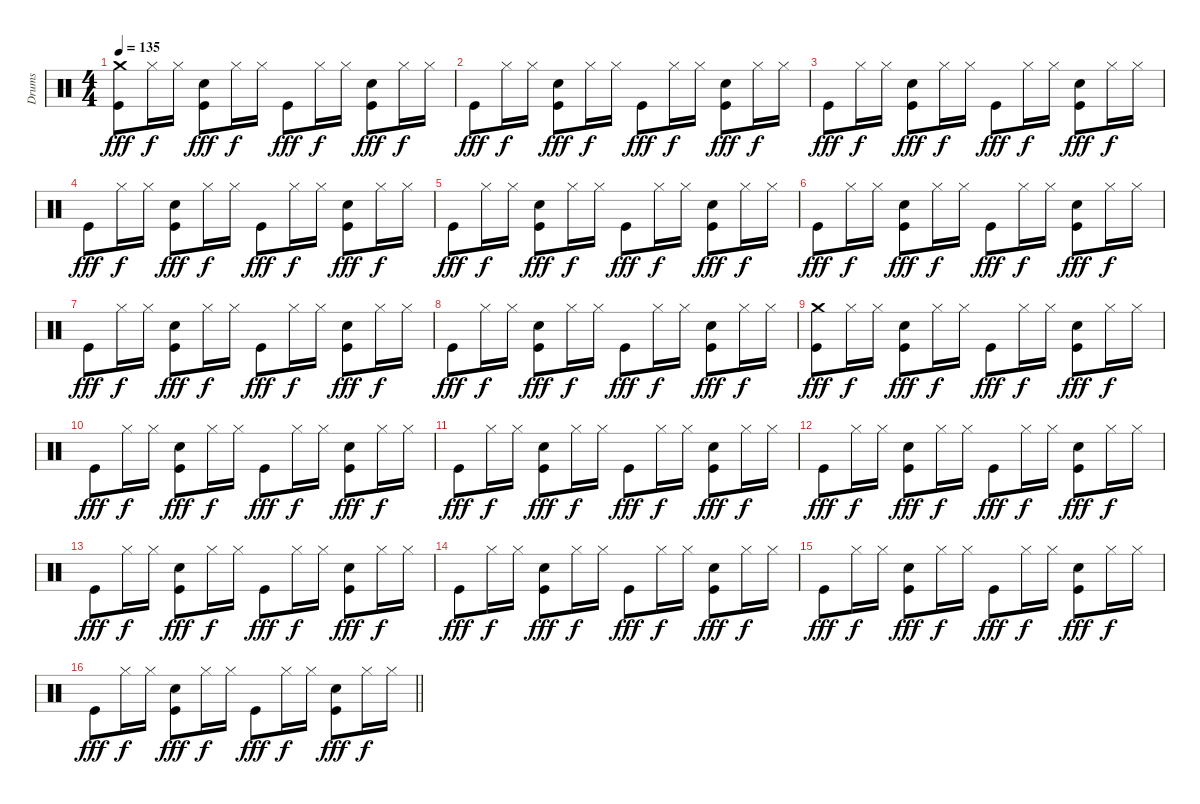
\track ("Drums" "Drums") {instrument percussion}
\staff {score}
\articulation defaults
\ts (4 4)
\tempo 135
\clef neutral
\ks c
("Kick (hit)" "Crash medium (hit)").8{dy fff} "Hi-Hat (closed)".16{dy f} "Hi-Hat (closed)".16 ("Kick (hit)" "Snare (hit) 2").8{dy fff} "Hi-Hat (closed)".16{dy f} "Hi-Hat (closed)".16 "Kick (hit)".8{dy fff} "Hi-Hat (closed)".16{dy f} "Hi-Hat (closed)".16 ("Kick (hit)" "Snare (hit) 2").8{dy fff} "Hi-Hat (closed)".16{dy f} "Hi-Hat (closed)".16 |
"Kick (hit)".8{dy fff} "Hi-Hat (closed)".16{dy f} "Hi-Hat (closed)".16 ("Kick (hit)" "Snare (hit) 2").8{dy fff} "Hi-Hat (closed)".16{dy f} "Hi-Hat (closed)".16 "Kick (hit)".8{dy fff} "Hi-Hat (closed)".16{dy f} "Hi-Hat (closed)".16 ("Kick (hit)" "Snare (hit) 2").8{dy fff} "Hi-Hat (closed)".16{dy f} "Hi-Hat (closed)".16 |
"Kick (hit)".8{dy fff} "Hi-Hat (closed)".16{dy f} "Hi-Hat (closed)".16 ("Kick (hit)" "Snare (hit) 2").8{dy fff} "Hi-Hat (closed)".16{dy f} "Hi-Hat (closed)".16 "Kick (hit)".8{dy fff} "Hi-Hat (closed)".16{dy f} "Hi-Hat (closed)".16 ("Kick (hit)" "Snare (hit) 2").8{dy fff} "Hi-Hat (closed)".16{dy f} "Hi-Hat (closed)".16 |
"Kick (hit)".8{dy fff} "Hi-Hat (closed)".16{dy f} "Hi-Hat (closed)".16 ("Kick (hit)" "Snare (hit) 2").8{dy fff} "Hi-Hat (closed)".16{dy f} "Hi-Hat (closed)".16 "Kick (hit)".8{dy fff} "Hi-Hat (closed)".16{dy f} "Hi-Hat (closed)".16 ("Kick (hit)" "Snare (hit) 2").8{dy fff} "Hi-Hat (closed)".16{dy f} "Hi-Hat (closed)".16 |
"Kick (hit)".8{dy fff} "Hi-Hat (closed)".16{dy f} "Hi-Hat (closed)".16 ("Kick (hit)" "Snare (hit) 2").8{dy fff} "Hi-Hat (closed)".16{dy f} "Hi-Hat (closed)".16 "Kick (hit)".8{dy fff} "Hi-Hat (closed)".16{dy f} "Hi-Hat (closed)".16 ("Kick (hit)" "Snare (hit) 2").8{dy fff} "Hi-Hat (closed)".16{dy f} "Hi-Hat (closed)".16 |
"Kick (hit)".8{dy fff} "Hi-Hat (closed)".16{dy f} "Hi-Hat (closed)".16 ("Kick (hit)" "Snare (hit) 2").8{dy fff} "Hi-Hat (closed)".16{dy f} "Hi-Hat (closed)".16 "Kick (hit)".8{dy fff} "Hi-Hat (closed)".16{dy f} "Hi-Hat (closed)".16 ("Kick (hit)" "Snare (hit) 2").8{dy fff} "Hi-Hat (closed)".16{dy f} "Hi-Hat (closed)".16 |
"Kick (hit)".8{dy fff} "Hi-Hat (closed)".16{dy f} "Hi-Hat (closed)".16 ("Kick (hit)" "Snare (hit) 2").8{dy fff} "Hi-Hat (closed)".16{dy f} "Hi-Hat (closed)".16 "Kick (hit)".8{dy fff} "Hi-Hat (closed)".16{dy f} "Hi-Hat (closed)".16 ("Kick (hit)" "Snare (hit) 2").8{dy fff} "Hi-Hat (closed)".16{dy f} "Hi-Hat (closed)".16 |
"Kick (hit)".8{dy fff} "Hi-Hat (closed)".16{dy f} "Hi-Hat (closed)".16 ("Kick (hit)" "Snare (hit) 2").8{dy fff} "Hi-Hat (closed)".16{dy f} "Hi-Hat (closed)".16 "Kick (hit)".8{dy fff} "Hi-Hat (closed)".16{dy f} "Hi-Hat (closed)".16 ("Kick (hit)" "Snare (hit) 2").8{dy fff} "Hi-Hat (closed)".16{dy f} "Hi-Hat (closed)".16 |
("Kick (hit)" "Crash medium (hit)").8{dy fff} "Hi-Hat (closed)".16{dy f} "Hi-Hat (closed)".16 ("Kick (hit)" "Snare (hit) 2").8{dy fff} "Hi-Hat (closed)".16{dy f} "Hi-Hat (closed)".16 "Kick (hit)".8{dy fff} "Hi-Hat (closed)".16{dy f} "Hi-Hat (closed)".16 ("Kick (hit)" "Snare (hit) 2").8{dy fff} "Hi-Hat (closed)".16{dy f} "Hi-Hat (closed)".16 |
"Kick (hit)".8{dy fff} "Hi-Hat (closed)".16{dy f} "Hi-Hat (closed)".16 ("Kick (hit)" "Snare (hit) 2").8{dy fff} "Hi-Hat (closed)".16{dy f} "Hi-Hat (closed)".16 "Kick (hit)".8{dy fff} "Hi-Hat (closed)".16{dy f} "Hi-Hat (closed)".16 ("Kick (hit)" "Snare (hit) 2").8{dy fff} "Hi-Hat (closed)".16{dy f} "Hi-Hat (closed)".16 |
"Kick (hit)".8{dy fff} "Hi-Hat (closed)".16{dy f} "Hi-Hat (closed)".16 ("Kick (hit)" "Snare (hit) 2").8{dy fff} "Hi-Hat (closed)".16{dy f} "Hi-Hat (closed)".16 "Kick (hit)".8{dy fff} "Hi-Hat (closed)".16{dy f} "Hi-Hat (closed)".16 ("Kick (hit)" "Snare (hit) 2").8{dy fff} "Hi-Hat (closed)".16{dy f} "Hi-Hat (closed)".16 |
"Kick (hit)".8{dy fff} "Hi-Hat (closed)".16{dy f} "Hi-Hat (closed)".16 ("Kick (hit)" "Snare (hit) 2").8{dy fff} "Hi-Hat (closed)".16{dy f} "Hi-Hat (closed)".16 "Kick (hit)".8{dy fff} "Hi-Hat (closed)".16{dy f} "Hi-Hat (closed)".16 ("Kick (hit)" "Snare (hit) 2").8{dy fff} "Hi-Hat (closed)".16{dy f} "Hi-Hat (closed)".16 |
"Kick (hit)".8{dy fff} "Hi-Hat (closed)".16{dy f} "Hi-Hat (closed)".16 ("Kick (hit)" "Snare (hit) 2").8{dy fff} "Hi-Hat (closed)".16{dy f} "Hi-Hat (closed)".16 "Kick (hit)".8{dy fff} "Hi-Hat (closed)".16{dy f} "Hi-Hat (closed)".16 ("Kick (hit)" "Snare (hit) 2").8{dy fff} "Hi-Hat (closed)".16{dy f} "Hi-Hat (closed)".16 |
"Kick (hit)".8{dy fff} "Hi-Hat (closed)".16{dy f} "Hi-Hat (closed)".16 ("Kick (hit)" "Snare (hit) 2").8{dy fff} "Hi-Hat (closed)".16{dy f} "Hi-Hat (closed)".16 "Kick (hit)".8{dy fff} "Hi-Hat (closed)".16{dy f} "Hi-Hat (closed)".16 ("Kick (hit)" "Snare (hit) 2").8{dy fff} "Hi-Hat (closed)".16{dy f} "Hi-Hat (closed)".16 |
"Kick (hit)".8{dy fff} "Hi-Hat (closed)".16{dy f} "Hi-Hat (closed)".16 ("Kick (hit)" "Snare (hit) 2").8{dy fff} "Hi-Hat (closed)".16{dy f} "Hi-Hat (closed)".16 "Kick (hit)".8{dy fff} "Hi-Hat (closed)".16{dy f} "Hi-Hat (closed)".16 ("Kick (hit)" "Snare (hit) 2").8{dy fff} "Hi-Hat (closed)".16{dy f} "Hi-Hat (closed)".16 |
\barLineRight lightlight "Kick (hit)".8{dy fff} "Hi-Hat (closed)".16{dy f} "Hi-Hat (closed)".16
("Kick (hit)" "Snare (hit) 2").8{dy fff} "Hi-Hat (closed)".16{dy f} "Hi-Hat (closed)".16 "Kick (hit)".8{dy fff} "Hi-Hat (closed)".16{dy f} "Hi-Hat (closed)".16 ("Kick (hit)" "Snare (hit) 2").8{dy fff} "Hi-Hat (closed)".16{dy f} "Hi-Hat (closed)".16
